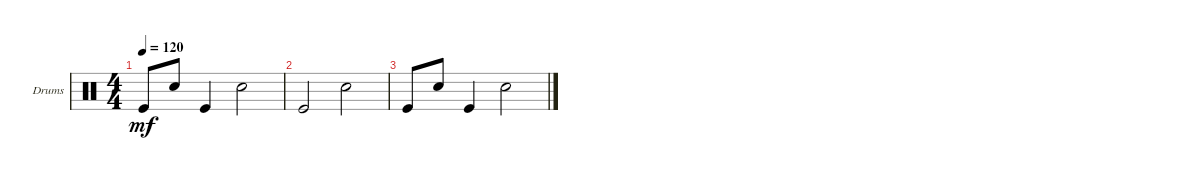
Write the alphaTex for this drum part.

\defaultSystemsLayout 4
\bracketExtendMode groupsimilarinstruments
\firstSystemTrackNameOrientation horizontal
\otherSystemsTrackNameOrientation horizontal
\track ("Drumkit" "Drums") {instrument percussion}
\staff {score}
\articulation defaults
\ts (4 4)
\tempo 120
\clef neutral
\ks c "Kick (hit)".8{dy mf} "Snare (hit) 2".8 "Kick (hit)".4 "Snare (hit) 2".2
|
"Kick (hit)".2 "Snare (hit) 2".2 |
"Kick (hit)".8 "Snare (hit) 2".8 "Kick (hit)".4 "Snare (hit) 2".2
